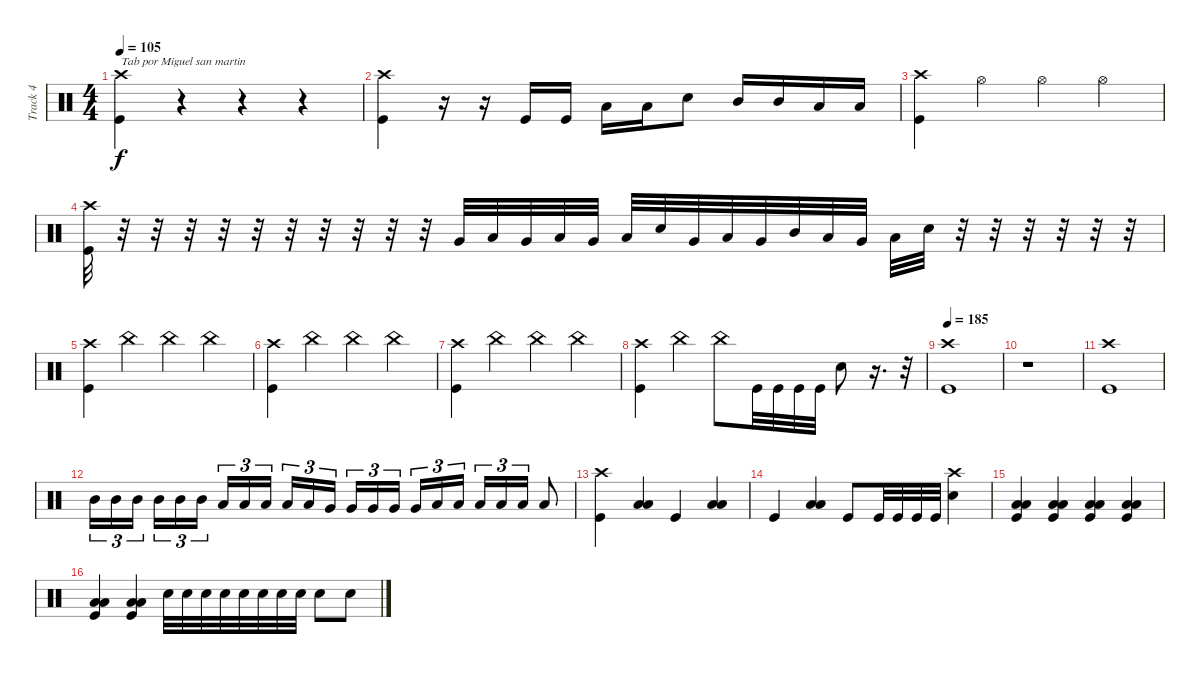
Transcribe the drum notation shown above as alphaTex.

\track ("Track 4" "Track 4") {instrument percussion}
\staff {score}
\articulation defaults
\ts (4 4)
\tempo 105
\clef neutral
\ks c
("Crash high (hit)" "Kick (hit)").4{txt "Tab por Miguel san martin" dy f} r.4 r.4 r.4 |
("Crash high (hit)" "Kick (hit)").4 r.16 r.16 "Kick (hit)".16 "Kick (hit)".16 "Low Tom (hit)".16 "Low Tom (hit)".16 "Electric Snare (hit)".8 "Mid Tom (hit)".16 "Mid Tom (hit)".16 "Low Tom (hit)".16 "Low Tom (hit)".16 |
("Crash high (hit)" "Kick (hit)").4 "Hi-Hat (open)".4 "Hi-Hat (open)".4 "Hi-Hat (open)".4 |
("Crash high (hit)" "Kick (hit)").32 r.32 r.32 r.32 r.32 r.32 r.32 r.32 r.32 r.32 r.32 "Very Low Tom (hit)".32 "Low Tom (hit)".32 "Very Low Tom (hit)".32 "Low Tom (hit)".32 "Very Low Tom (hit)".32 "Low Tom (hit)".32 "Electric Snare (hit)".32 "Very Low Tom (hit)".32 "Low Tom (hit)".32 "Very Low Tom (hit)".32 "Mid Tom (hit)".32 "Low Tom (hit)".32 "Very Low Tom (hit)".32 "Low Floor Tom (hit)".32 "Electric Snare (hit)".32 r.32 r.32 r.32 r.32 r.32 r.32 |
("Crash high (hit)" "Kick (hit)").4 "China (hit)".4 "China (hit)".4 "China (hit)".4 |
("Crash high (hit)" "Kick (hit)").4 "China (hit)".4 "China (hit)".4 "China (hit)".4 |
("Crash high (hit)" "Kick (hit)").4 "China (hit)".4 "China (hit)".4 "China (hit)".4 |
("Crash high (hit)" "Kick (hit)").4 "China (hit)".4 "China (hit)".8 "Kick (hit)".32 "Kick (hit)".32 "Kick (hit)".32 "Kick (hit)".32 "Electric Snare (hit)".8 r.16{d} r.32 |
\tempo 185
("Crash high (hit)" "Kick (hit)").1 |
r.1 |
("Crash high (hit)" "Kick (hit)").1 |
"Mid Tom (hit)".16{tu (3 2)} "Mid Tom (hit)".16{tu (3 2)} "Mid Tom (hit)".16{tu (3 2)} "Mid Tom (hit)".16{tu (3 2)} "Mid Tom (hit)".16{tu (3 2)} "Mid Tom (hit)".16{tu (3 2)} "Low Tom (hit)".16{tu (3 2)} "Low Tom (hit)".16{tu (3 2)} "Low Tom (hit)".16{tu (3 2)} "Low Tom (hit)".16{tu (3 2)} "Low Tom (hit)".16{tu (3 2)} "Very Low Tom (hit)".16{tu (3 2)} "Very Low Tom (hit)".16{tu (3 2)} "Very Low Tom (hit)".16{tu (3 2)} "Very Low Tom (hit)".16{tu (3 2)} "Very Low Tom (hit)".16{tu (3 2)} "Low Floor Tom (hit)".16{tu (3 2)} "Low Floor Tom (hit)".16{tu (3 2)} "Low Floor Tom (hit)".16{tu (3 2)} "Low Floor Tom (hit)".16{tu (3 2)} "Low Floor Tom (hit)".16{tu (3 2)} "Low Floor Tom (hit)".8 |
("Crash high (hit)" "Kick (hit)").4 ("Low Floor Tom (hit)" "Low Floor Tom (hit)").4 "Kick (hit)".4 ("Low Floor Tom (hit)" "Low Floor Tom (hit)").4 |
"Kick (hit)".4 ("Low Floor Tom (hit)" "Low Floor Tom (hit)").4 "Kick (hit)".8 "Kick (hit)".32 "Kick (hit)".32 "Kick (hit)".32 "Kick (hit)".32 ("Crash high (hit)" "Electric Snare (hit)").4 |
("Low Floor Tom (hit)" "Low Floor Tom (hit)" "Kick (hit)").4 ("Low Floor Tom (hit)" "Low Floor Tom (hit)" "Kick (hit)").4 ("Low Floor Tom (hit)" "Low Floor Tom (hit)" "Kick (hit)").4 ("Low Floor Tom (hit)" "Low Floor Tom (hit)" "Kick (hit)").4 |
("Low Floor Tom (hit)" "Low Floor Tom (hit)" "Kick (hit)").4 ("Low Floor Tom (hit)" "Low Floor Tom (hit)" "Kick (hit)").4 "Electric Snare (hit)".32 "Electric Snare (hit)".32 "Electric Snare (hit)".32 "Electric Snare (hit)".32 "Electric Snare (hit)".32 "Electric Snare (hit)".32 "Electric Snare (hit)".32 "Electric Snare (hit)".32 "Electric Snare (hit)".8 "Electric Snare (hit)".8
